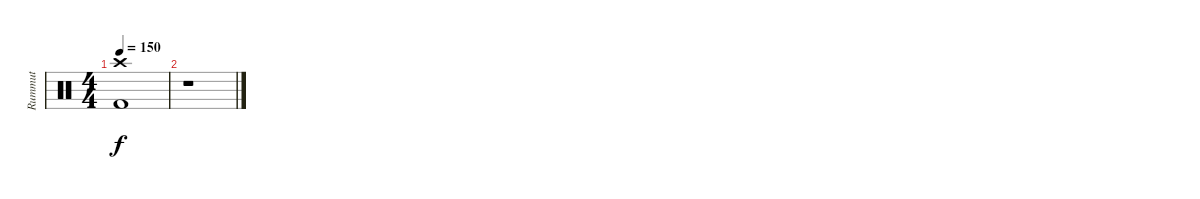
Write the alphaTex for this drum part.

\track ("Rummut" "Rummut") {instrument percussion}
\staff {score}
\articulation defaults
\ts (4 4)
\tempo 150
\clef neutral
\ks c
("Crash high (hit)" "Kick (hit) 2").1{dy f} |
r.1
